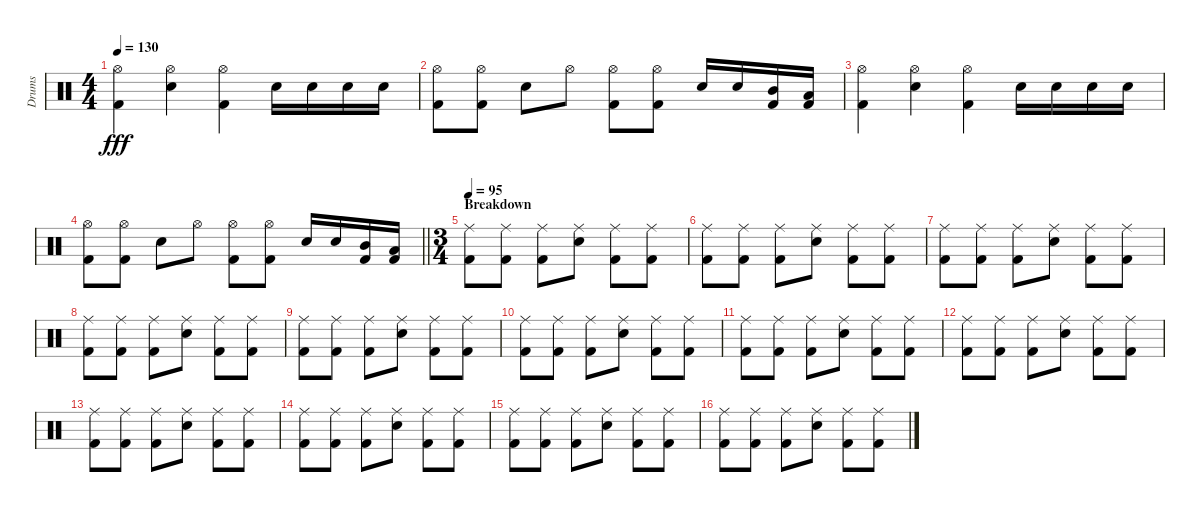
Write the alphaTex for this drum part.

\track ("Drums" "Drums") {instrument percussion}
\staff {score}
\articulation defaults
\ts (4 4)
\tempo 130
\clef neutral
\ks c
("Hi-Hat (open)" "Kick (hit) 2").4{dy fff} ("Hi-Hat (open)" "Electric Snare (hit)").4 ("Hi-Hat (open)" "Kick (hit) 2").4 "Electric Snare (hit)".16 "Electric Snare (hit)".16 "Electric Snare (hit)".16 "Electric Snare (hit)".16 |
("Hi-Hat (open)" "Kick (hit) 2").8 ("Hi-Hat (open)" "Kick (hit) 2").8 "Electric Snare (hit)".8 "Hi-Hat (open)".8 ("Hi-Hat (open)" "Kick (hit) 2").8 ("Hi-Hat (open)" "Kick (hit) 2").8 "Electric Snare (hit)".16 "Electric Snare (hit)".16 ("Mid Tom (hit)" "Kick (hit) 2").16 ("Low Tom (hit)" "Kick (hit) 2").16 |
("Hi-Hat (open)" "Kick (hit) 2").4 ("Hi-Hat (open)" "Electric Snare (hit)").4 ("Hi-Hat (open)" "Kick (hit) 2").4 "Electric Snare (hit)".16 "Electric Snare (hit)".16 "Electric Snare (hit)".16 "Electric Snare (hit)".16 |
\barLineRight lightlight
("Hi-Hat (open)" "Kick (hit) 2").8 ("Hi-Hat (open)" "Kick (hit) 2").8 "Electric Snare (hit)".8 "Hi-Hat (open)".8 ("Hi-Hat (open)" "Kick (hit) 2").8 ("Hi-Hat (open)" "Kick (hit) 2").8 "Electric Snare (hit)".16 "Electric Snare (hit)".16 ("Mid Tom (hit)" "Kick (hit) 2").16 ("Low Tom (hit)" "Kick (hit) 2").16 |
\ts (3 4)
\section ("" "Breakdown")
\tempo 95
("Ride (middle)" "Kick (hit) 2").8 ("Ride (middle)" "Kick (hit) 2").8 ("Ride (middle)" "Kick (hit) 2").8 ("Ride (middle)" "Electric Snare (hit)").8 ("Ride (middle)" "Kick (hit) 2").8 ("Ride (middle)" "Kick (hit) 2").8 |
("Ride (middle)" "Kick (hit) 2").8 ("Ride (middle)" "Kick (hit) 2").8 ("Ride (middle)" "Kick (hit) 2").8 ("Ride (middle)" "Electric Snare (hit)").8 ("Ride (middle)" "Kick (hit) 2").8 ("Ride (middle)" "Kick (hit) 2").8 |
("Ride (middle)" "Kick (hit) 2").8 ("Ride (middle)" "Kick (hit) 2").8 ("Ride (middle)" "Kick (hit) 2").8 ("Ride (middle)" "Electric Snare (hit)").8 ("Ride (middle)" "Kick (hit) 2").8 ("Ride (middle)" "Kick (hit) 2").8 |
("Ride (middle)" "Kick (hit) 2").8 ("Ride (middle)" "Kick (hit) 2").8 ("Ride (middle)" "Kick (hit) 2").8 ("Ride (middle)" "Electric Snare (hit)").8 ("Ride (middle)" "Kick (hit) 2").8 ("Ride (middle)" "Kick (hit) 2").8 |
("Ride (middle)" "Kick (hit) 2").8 ("Ride (middle)" "Kick (hit) 2").8 ("Ride (middle)" "Kick (hit) 2").8 ("Ride (middle)" "Electric Snare (hit)").8 ("Ride (middle)" "Kick (hit) 2").8 ("Ride (middle)" "Kick (hit) 2").8 |
("Ride (middle)" "Kick (hit) 2").8 ("Ride (middle)" "Kick (hit) 2").8 ("Ride (middle)" "Kick (hit) 2").8 ("Ride (middle)" "Electric Snare (hit)").8 ("Ride (middle)" "Kick (hit) 2").8 ("Ride (middle)" "Kick (hit) 2").8 |
("Ride (middle)" "Kick (hit) 2").8 ("Ride (middle)" "Kick (hit) 2").8 ("Ride (middle)" "Kick (hit) 2").8 ("Ride (middle)" "Electric Snare (hit)").8 ("Ride (middle)" "Kick (hit) 2").8 ("Ride (middle)" "Kick (hit) 2").8 |
("Ride (middle)" "Kick (hit) 2").8 ("Ride (middle)" "Kick (hit) 2").8 ("Ride (middle)" "Kick (hit) 2").8 ("Ride (middle)" "Electric Snare (hit)").8 ("Ride (middle)" "Kick (hit) 2").8 ("Ride (middle)" "Kick (hit) 2").8 |
("Ride (middle)" "Kick (hit) 2").8 ("Ride (middle)" "Kick (hit) 2").8 ("Ride (middle)" "Kick (hit) 2").8 ("Ride (middle)" "Electric Snare (hit)").8 ("Ride (middle)" "Kick (hit) 2").8 ("Ride (middle)" "Kick (hit) 2").8 |
("Ride (middle)" "Kick (hit) 2").8 ("Ride (middle)" "Kick (hit) 2").8 ("Ride (middle)" "Kick (hit) 2").8 ("Ride (middle)" "Electric Snare (hit)").8 ("Ride (middle)" "Kick (hit) 2").8 ("Ride (middle)" "Kick (hit) 2").8 |
("Ride (middle)" "Kick (hit) 2").8 ("Ride (middle)" "Kick (hit) 2").8 ("Ride (middle)" "Kick (hit) 2").8 ("Ride (middle)" "Electric Snare (hit)").8 ("Ride (middle)" "Kick (hit) 2").8 ("Ride (middle)" "Kick (hit) 2").8 |
("Ride (middle)" "Kick (hit) 2").8 ("Ride (middle)" "Kick (hit) 2").8 ("Ride (middle)" "Kick (hit) 2").8 ("Ride (middle)" "Electric Snare (hit)").8 ("Ride (middle)" "Kick (hit) 2").8 ("Ride (middle)" "Kick (hit) 2").8
